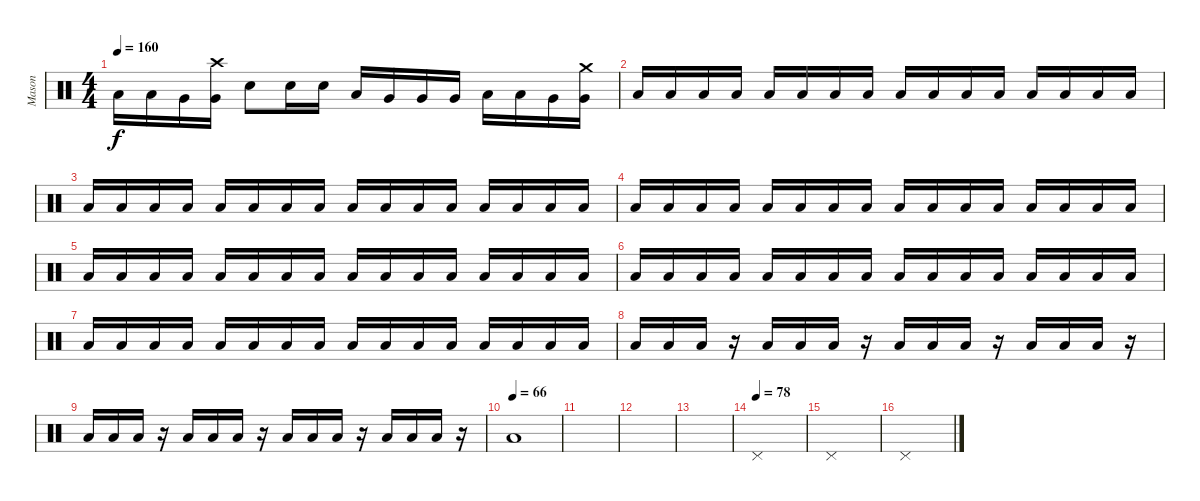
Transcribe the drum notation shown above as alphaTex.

\track ("Mason" "Mason") {instrument percussion}
\staff {score}
\articulation defaults
\ts (4 4)
\tempo 160
\clef neutral
\ks c "Low Floor Tom (hit)".16{dy f} "Low Floor Tom (hit)".16 "Very Low Tom (hit)".16
("Crash high (hit)" "Very Low Tom (hit)").16 "Electric Snare (hit)".8 "Electric Snare (hit)".16 "Electric Snare (hit)".16 "Low Tom (hit)".16 "Very Low Tom (hit)".16 "Very Low Tom (hit)".16 "Very Low Tom (hit)".16 "Low Floor Tom (hit)".16 "Low Floor Tom (hit)".16 "Very Low Tom (hit)".16 ("Crash medium (hit)" "Very Low Tom (hit)").16 |
"Low Floor Tom (hit)".16 "Low Floor Tom (hit)".16 "Low Floor Tom (hit)".16 "Low Floor Tom (hit)".16 "Low Floor Tom (hit)".16 "Low Floor Tom (hit)".16 "Low Floor Tom (hit)".16 "Low Floor Tom (hit)".16 "Low Floor Tom (hit)".16 "Low Floor Tom (hit)".16 "Low Floor Tom (hit)".16 "Low Floor Tom (hit)".16 "Low Floor Tom (hit)".16 "Low Floor Tom (hit)".16 "Low Floor Tom (hit)".16 "Low Floor Tom (hit)".16 |
"Low Floor Tom (hit)".16 "Low Floor Tom (hit)".16 "Low Floor Tom (hit)".16 "Low Floor Tom (hit)".16 "Low Floor Tom (hit)".16 "Low Floor Tom (hit)".16 "Low Floor Tom (hit)".16 "Low Floor Tom (hit)".16 "Low Floor Tom (hit)".16 "Low Floor Tom (hit)".16 "Low Floor Tom (hit)".16 "Low Floor Tom (hit)".16 "Low Floor Tom (hit)".16 "Low Floor Tom (hit)".16 "Low Floor Tom (hit)".16 "Low Floor Tom (hit)".16 |
"Low Floor Tom (hit)".16 "Low Floor Tom (hit)".16 "Low Floor Tom (hit)".16 "Low Floor Tom (hit)".16 "Low Floor Tom (hit)".16 "Low Floor Tom (hit)".16 "Low Floor Tom (hit)".16 "Low Floor Tom (hit)".16 "Low Floor Tom (hit)".16 "Low Floor Tom (hit)".16 "Low Floor Tom (hit)".16 "Low Floor Tom (hit)".16 "Low Floor Tom (hit)".16 "Low Floor Tom (hit)".16 "Low Floor Tom (hit)".16 "Low Floor Tom (hit)".16 |
"Low Floor Tom (hit)".16 "Low Floor Tom (hit)".16 "Low Floor Tom (hit)".16 "Low Floor Tom (hit)".16 "Low Floor Tom (hit)".16 "Low Floor Tom (hit)".16 "Low Floor Tom (hit)".16 "Low Floor Tom (hit)".16 "Low Floor Tom (hit)".16 "Low Floor Tom (hit)".16 "Low Floor Tom (hit)".16 "Low Floor Tom (hit)".16 "Low Floor Tom (hit)".16 "Low Floor Tom (hit)".16 "Low Floor Tom (hit)".16 "Low Floor Tom (hit)".16 |
"Low Floor Tom (hit)".16 "Low Floor Tom (hit)".16 "Low Floor Tom (hit)".16 "Low Floor Tom (hit)".16 "Low Floor Tom (hit)".16 "Low Floor Tom (hit)".16 "Low Floor Tom (hit)".16 "Low Floor Tom (hit)".16 "Low Floor Tom (hit)".16 "Low Floor Tom (hit)".16 "Low Floor Tom (hit)".16 "Low Floor Tom (hit)".16 "Low Floor Tom (hit)".16 "Low Floor Tom (hit)".16 "Low Floor Tom (hit)".16 "Low Floor Tom (hit)".16 |
"Low Floor Tom (hit)".16 "Low Floor Tom (hit)".16 "Low Floor Tom (hit)".16 "Low Floor Tom (hit)".16 "Low Floor Tom (hit)".16 "Low Floor Tom (hit)".16 "Low Floor Tom (hit)".16 "Low Floor Tom (hit)".16 "Low Floor Tom (hit)".16 "Low Floor Tom (hit)".16 "Low Floor Tom (hit)".16 "Low Floor Tom (hit)".16 "Low Floor Tom (hit)".16 "Low Floor Tom (hit)".16 "Low Floor Tom (hit)".16 "Low Floor Tom (hit)".16 |
"Low Floor Tom (hit)".16 "Low Floor Tom (hit)".16 "Low Floor Tom (hit)".16 r.16 "Low Floor Tom (hit)".16 "Low Floor Tom (hit)".16 "Low Floor Tom (hit)".16 r.16 "Low Floor Tom (hit)".16 "Low Floor Tom (hit)".16 "Low Floor Tom (hit)".16 r.16 "Low Floor Tom (hit)".16 "Low Floor Tom (hit)".16 "Low Floor Tom (hit)".16 r.16 |
"Low Floor Tom (hit)".16 "Low Floor Tom (hit)".16 "Low Floor Tom (hit)".16 r.16 "Low Floor Tom (hit)".16 "Low Floor Tom (hit)".16 "Low Floor Tom (hit)".16 r.16 "Low Floor Tom (hit)".16 "Low Floor Tom (hit)".16 "Low Floor Tom (hit)".16 r.16 "Low Floor Tom (hit)".16 "Low Floor Tom (hit)".16 "Low Floor Tom (hit)".16 r.16 |
\tempo (66)
"Low Floor Tom (hit)".1 |
|
|
|
\tempo (78)
"Pedal Hi-Hat (hit)".1 |
"Pedal Hi-Hat (hit)".1 |
"Pedal Hi-Hat (hit)".1
